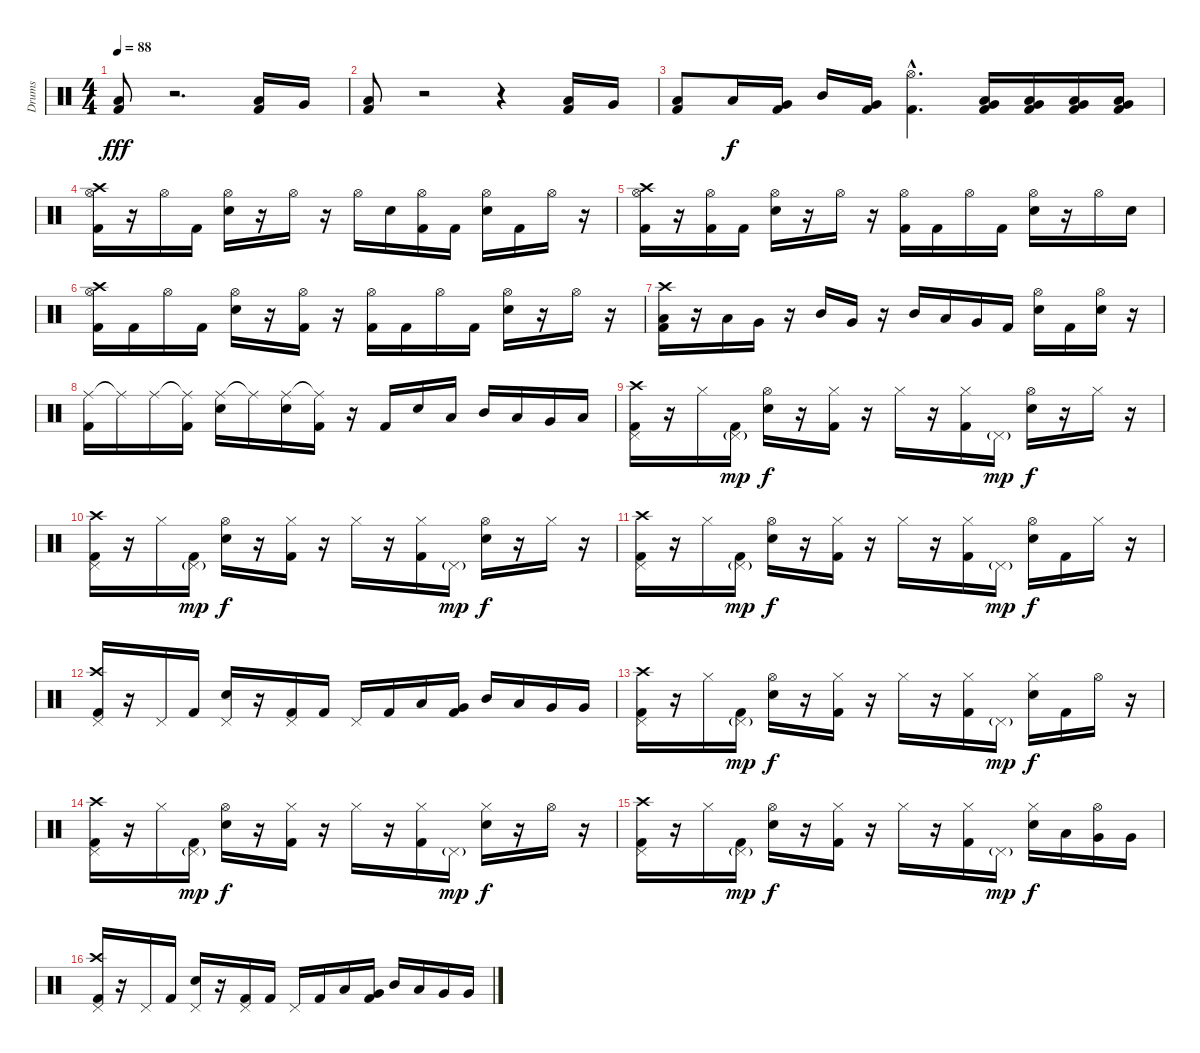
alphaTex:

\track ("Drums" "Drums") {instrument percussion}
\staff {score}
\articulation defaults
\ts (4 4)
\tempo 88
\clef neutral
\ks c
("Kick (hit) 2" "Low Tom (hit)").8{dy fff} r.2{d} ("Kick (hit) 2" "Low Tom (hit)").16 "Very Low Tom (hit)".16 |
("Kick (hit) 2" "Low Tom (hit)").8 r.2 r.4 ("Kick (hit) 2" "Low Tom (hit)").16 "Very Low Tom (hit)".16 |
("Kick (hit) 2" "Low Tom (hit)").8 "Low Tom (hit)".16{dy f} ("Kick (hit) 2" "Very Low Tom (hit)").16 "Mid Tom (hit)".16 ("Kick (hit) 2" "Very Low Tom (hit)").16 ("Hi-Hat (open)"{hac} "Kick (hit) 2"{hac}).4{d} ("Low Tom (hit)" "Very Low Tom (hit)" "Kick (hit) 2").16 ("Low Tom (hit)" "Very Low Tom (hit)" "Kick (hit) 2").16 ("Low Tom (hit)" "Very Low Tom (hit)" "Kick (hit) 2").16 ("Low Tom (hit)" "Very Low Tom (hit)" "Kick (hit) 2").16 |
("Crash high (hit)" "Hi-Hat (open)" "Kick (hit) 2").16 r.16 "Hi-Hat (open)".16 "Kick (hit) 2".16 ("Hi-Hat (open)" "Electric Snare (hit)").16 r.16 "Hi-Hat (open)".16 r.16 "Hi-Hat (open)".16 "Electric Snare (hit)".16 ("Hi-Hat (open)" "Kick (hit) 2").16 "Kick (hit) 2".16 ("Hi-Hat (open)" "Electric Snare (hit)").16 "Kick (hit) 2".16 "Hi-Hat (open)".16 r.16 |
("Crash high (hit)" "Hi-Hat (open)" "Kick (hit) 2").16 r.16 ("Hi-Hat (open)" "Kick (hit) 2").16 "Kick (hit) 2".16 ("Hi-Hat (open)" "Electric Snare (hit)").16 r.16 "Hi-Hat (open)".16 r.16 ("Hi-Hat (open)" "Kick (hit) 2").16 "Kick (hit) 2".16 "Hi-Hat (open)".16 "Kick (hit) 2".16 ("Hi-Hat (open)" "Electric Snare (hit)").16 r.16 "Hi-Hat (open)".16 "Electric Snare (hit)".16 |
("Crash high (hit)" "Hi-Hat (open)" "Kick (hit) 2").16 "Kick (hit) 2".16 "Hi-Hat (open)".16 "Kick (hit) 2".16 ("Hi-Hat (open)" "Electric Snare (hit)").16 r.16 ("Hi-Hat (open)" "Kick (hit) 2").16 r.16 ("Hi-Hat (open)" "Kick (hit) 2").16 "Kick (hit) 2".16 "Hi-Hat (open)".16 "Kick (hit) 2".16 ("Hi-Hat (open)" "Electric Snare (hit)").16 r.16 "Hi-Hat (open)".16 r.16 |
("Crash high (hit)" "Low Tom (hit)" "Kick (hit) 2").16 r.16 "Low Tom (hit)".16 "Very Low Tom (hit)".16 r.16 "Mid Tom (hit)".16 "Very Low Tom (hit)".16 r.16 "Mid Tom (hit)".16 "Low Tom (hit)".16 "Very Low Tom (hit)".16 "Kick (hit) 2".16 ("Hi-Hat (open)" "Electric Snare (hit)").16 "Kick (hit) 2".16 ("Hi-Hat (open)" "Electric Snare (hit)").16 r.16 |
("Ride (middle)" "Kick (hit) 2").16 "Ride (middle)"{t}.16 "Ride (middle)".16 ("Ride (middle)"{t} "Kick (hit) 2").16 ("Ride (middle)" "Electric Snare (hit)").16 "Ride (middle)"{t}.16 ("Ride (middle)" "Electric Snare (hit)").16 ("Ride (middle)"{t} "Kick (hit) 2").16 r.16 "Kick (hit) 2".16 "Electric Snare (hit)".16 "Low Tom (hit)".16 "Mid Tom (hit)".16 "Low Tom (hit)".16 "Very Low Tom (hit)".16 "Low Floor Tom (hit)".16 |
("Crash high (hit)" "Pedal Hi-Hat (hit)" "Kick (hit) 2").16 r.16 "Hi-Hat (closed)".16 ("Pedal Hi-Hat (hit)"{g} "Kick (hit) 2").16{dy mp} ("Electric Snare (hit)" "Hi-Hat (open)").16{dy f} r.16 ("Hi-Hat (closed)" "Kick (hit) 2").16 r.16 "Hi-Hat (closed)".16 r.16 ("Hi-Hat (closed)" "Kick (hit) 2").16 "Pedal Hi-Hat (hit)"{g}.16{dy mp} ("Electric Snare (hit)" "Hi-Hat (open)").16{dy f} r.16 "Hi-Hat (closed)".16 r.16 |
("Crash high (hit)" "Pedal Hi-Hat (hit)" "Kick (hit) 2").16 r.16 "Hi-Hat (closed)".16 ("Pedal Hi-Hat (hit)"{g} "Kick (hit) 2").16{dy mp} ("Electric Snare (hit)" "Hi-Hat (open)").16{dy f} r.16 ("Hi-Hat (closed)" "Kick (hit) 2").16 r.16 "Hi-Hat (closed)".16 r.16 ("Hi-Hat (closed)" "Kick (hit) 2").16 "Pedal Hi-Hat (hit)"{g}.16{dy mp} ("Electric Snare (hit)" "Hi-Hat (open)").16{dy f} r.16 "Hi-Hat (closed)".16 r.16 |
("Crash high (hit)" "Pedal Hi-Hat (hit)" "Kick (hit) 2").16 r.16 "Hi-Hat (closed)".16 ("Pedal Hi-Hat (hit)"{g} "Kick (hit) 2").16{dy mp} ("Electric Snare (hit)" "Hi-Hat (open)").16{dy f} r.16 ("Hi-Hat (closed)" "Kick (hit) 2").16 r.16 "Hi-Hat (closed)".16 r.16 ("Hi-Hat (closed)" "Kick (hit) 2").16 "Pedal Hi-Hat (hit)"{g}.16{dy mp} ("Electric Snare (hit)" "Hi-Hat (open)").16{dy f} "Kick (hit) 2".16 "Hi-Hat (closed)".16 r.16 |
("Crash high (hit)" "Pedal Hi-Hat (hit)" "Kick (hit) 2").16 r.16 "Pedal Hi-Hat (hit)".16 "Kick (hit) 2".16 ("Electric Snare (hit)" "Pedal Hi-Hat (hit)").16 r.16 ("Pedal Hi-Hat (hit)" "Kick (hit) 2").16 "Kick (hit) 2".16 "Pedal Hi-Hat (hit)".16 "Kick (hit) 2".16 "Low Tom (hit)".16 ("Kick (hit) 2" "Very Low Tom (hit)").16 "Mid Tom (hit)".16 "Low Tom (hit)".16 "Very Low Tom (hit)".16 "Very Low Tom (hit)".16 |
("Crash high (hit)" "Pedal Hi-Hat (hit)" "Kick (hit) 2").16 r.16 "Hi-Hat (closed)".16 ("Pedal Hi-Hat (hit)"{g} "Kick (hit) 2").16{dy mp} ("Electric Snare (hit)" "Hi-Hat (open)").16{dy f} r.16 ("Hi-Hat (closed)" "Kick (hit) 2").16 r.16 "Hi-Hat (closed)".16 r.16 ("Hi-Hat (closed)" "Kick (hit) 2").16 "Pedal Hi-Hat (hit)"{g}.16{dy mp} ("Electric Snare (hit)" "Hi-Hat (closed)").16{dy f} "Kick (hit) 2".16 "Hi-Hat (open)".16 r.16 |
("Crash high (hit)" "Pedal Hi-Hat (hit)" "Kick (hit) 2").16 r.16 "Hi-Hat (closed)".16 ("Pedal Hi-Hat (hit)"{g} "Kick (hit) 2").16{dy mp} ("Electric Snare (hit)" "Hi-Hat (open)").16{dy f} r.16 ("Hi-Hat (closed)" "Kick (hit) 2").16 r.16 "Hi-Hat (closed)".16 r.16 ("Hi-Hat (closed)" "Kick (hit) 2").16 "Pedal Hi-Hat (hit)"{g}.16{dy mp} ("Electric Snare (hit)" "Hi-Hat (closed)").16{dy f} r.16 "Hi-Hat (open)".16 r.16 |
("Crash high (hit)" "Pedal Hi-Hat (hit)" "Kick (hit) 2").16 r.16 "Hi-Hat (closed)".16 ("Pedal Hi-Hat (hit)"{g} "Kick (hit) 2").16{dy mp} ("Electric Snare (hit)" "Hi-Hat (open)").16{dy f} r.16 ("Hi-Hat (closed)" "Kick (hit) 2").16 r.16 "Hi-Hat (closed)".16 r.16 ("Hi-Hat (closed)" "Kick (hit) 2").16 "Pedal Hi-Hat (hit)"{g}.16{dy mp} ("Electric Snare (hit)" "Hi-Hat (closed)").16{dy f} "Low Tom (hit)".16 ("Hi-Hat (open)" "Very Low Tom (hit)").16 "Very Low Tom (hit)".16 |
("Crash high (hit)" "Pedal Hi-Hat (hit)" "Kick (hit) 2").16 r.16 "Pedal Hi-Hat (hit)".16 "Kick (hit) 2".16 ("Electric Snare (hit)" "Pedal Hi-Hat (hit)").16 r.16 ("Pedal Hi-Hat (hit)" "Kick (hit) 2").16 "Kick (hit) 2".16 "Pedal Hi-Hat (hit)".16 "Kick (hit) 2".16 "Low Tom (hit)".16 ("Kick (hit) 2" "Very Low Tom (hit)").16 "Mid Tom (hit)".16 "Low Tom (hit)".16 "Very Low Tom (hit)".16 "Very Low Tom (hit)".16
